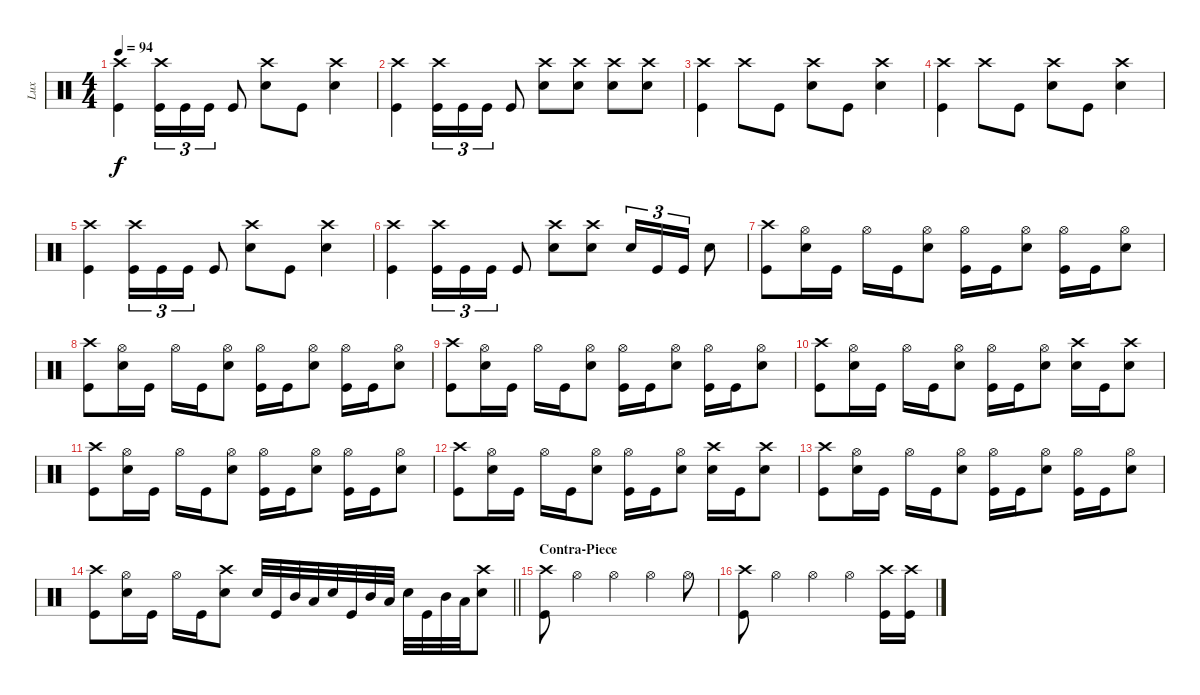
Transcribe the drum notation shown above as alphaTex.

\track ("Lux" "Lux") {instrument percussion}
\staff {score}
\articulation defaults
\ts (4 4)
\tempo 94
\clef neutral
\ks c
("Crash high (hit)" "Kick (hit)").4{dy f} ("Crash high (hit)" "Kick (hit)").16{tu (3 2)} "Kick (hit)".16{tu (3 2)} "Kick (hit)".16{tu (3 2)} "Kick (hit)".8 ("Crash high (hit)" "Snare (hit) 2").8 "Kick (hit)".8 ("Crash high (hit)" "Snare (hit) 2").4 |
("Crash high (hit)" "Kick (hit)").4 ("Crash high (hit)" "Kick (hit)").16{tu (3 2)} "Kick (hit)".16{tu (3 2)} "Kick (hit)".16{tu (3 2)} "Kick (hit)".8 ("Crash high (hit)" "Snare (hit) 2").8 ("Crash high (hit)" "Snare (hit) 2").8 ("Crash high (hit)" "Snare (hit) 2").8 ("Crash high (hit)" "Snare (hit) 2").8 |
("Crash high (hit)" "Kick (hit)").4 "Crash high (hit)".8 "Kick (hit)".8 ("Crash high (hit)" "Snare (hit) 2").8 "Kick (hit)".8 ("Crash high (hit)" "Snare (hit) 2").4 |
("Crash high (hit)" "Kick (hit)").4 "Crash high (hit)".8 "Kick (hit)".8 ("Crash high (hit)" "Snare (hit) 2").8 "Kick (hit)".8 ("Crash high (hit)" "Snare (hit) 2").4 |
("Crash high (hit)" "Kick (hit)").4 ("Crash high (hit)" "Kick (hit)").16{tu (3 2)} "Kick (hit)".16{tu (3 2)} "Kick (hit)".16{tu (3 2)} "Kick (hit)".8 ("Crash high (hit)" "Snare (hit) 2").8 "Kick (hit)".8 ("Crash high (hit)" "Snare (hit) 2").4 |
("Crash high (hit)" "Kick (hit)").4 ("Crash high (hit)" "Kick (hit)").16{tu (3 2)} "Kick (hit)".16{tu (3 2)} "Kick (hit)".16{tu (3 2)} "Kick (hit)".8 ("Crash high (hit)" "Snare (hit) 2").8 ("Crash high (hit)" "Snare (hit) 2").8 "Snare (hit) 2".16{tu (3 2)} "Kick (hit)".16{tu (3 2)} "Kick (hit)".16{tu (3 2)} "Snare (hit) 2".8 |
("Crash high (hit)" "Kick (hit)").8 ("Hi-Hat (open)" "Snare (hit) 2").16 "Kick (hit)".16 "Hi-Hat (open)".16 "Kick (hit)".16 ("Hi-Hat (open)" "Snare (hit) 2").8 ("Hi-Hat (open)" "Kick (hit)").16 "Kick (hit)".16 ("Hi-Hat (open)" "Snare (hit) 2").8 ("Hi-Hat (open)" "Kick (hit)").16 "Kick (hit)".16 ("Hi-Hat (open)" "Snare (hit) 2").8 |
("Crash high (hit)" "Kick (hit)").8 ("Hi-Hat (open)" "Snare (hit) 2").16 "Kick (hit)".16 "Hi-Hat (open)".16 "Kick (hit)".16 ("Hi-Hat (open)" "Snare (hit) 2").8 ("Hi-Hat (open)" "Kick (hit)").16 "Kick (hit)".16 ("Hi-Hat (open)" "Snare (hit) 2").8 ("Hi-Hat (open)" "Kick (hit)").16 "Kick (hit)".16 ("Hi-Hat (open)" "Snare (hit) 2").8 |
("Crash high (hit)" "Kick (hit)").8 ("Hi-Hat (open)" "Snare (hit) 2").16 "Kick (hit)".16 "Hi-Hat (open)".16 "Kick (hit)".16 ("Hi-Hat (open)" "Snare (hit) 2").8 ("Hi-Hat (open)" "Kick (hit)").16 "Kick (hit)".16 ("Hi-Hat (open)" "Snare (hit) 2").8 ("Hi-Hat (open)" "Kick (hit)").16 "Kick (hit)".16 ("Hi-Hat (open)" "Snare (hit) 2").8 |
("Crash high (hit)" "Kick (hit)").8 ("Hi-Hat (open)" "Snare (hit) 2").16 "Kick (hit)".16 "Hi-Hat (open)".16 "Kick (hit)".16 ("Hi-Hat (open)" "Snare (hit) 2").8 ("Hi-Hat (open)" "Kick (hit)").16 "Kick (hit)".16 ("Hi-Hat (open)" "Snare (hit) 2").8 ("Crash high (hit)" "Snare (hit) 2").16 "Kick (hit)".16 ("Crash high (hit)" "Snare (hit) 2").8 |
("Crash high (hit)" "Kick (hit)").8 ("Hi-Hat (open)" "Snare (hit) 2").16 "Kick (hit)".16 "Hi-Hat (open)".16 "Kick (hit)".16 ("Hi-Hat (open)" "Snare (hit) 2").8 ("Hi-Hat (open)" "Kick (hit)").16 "Kick (hit)".16 ("Hi-Hat (open)" "Snare (hit) 2").8 ("Hi-Hat (open)" "Kick (hit)").16 "Kick (hit)".16 ("Hi-Hat (open)" "Snare (hit) 2").8 |
("Crash high (hit)" "Kick (hit)").8 ("Hi-Hat (open)" "Snare (hit) 2").16 "Kick (hit)".16 "Hi-Hat (open)".16 "Kick (hit)".16 ("Hi-Hat (open)" "Snare (hit) 2").8 ("Hi-Hat (open)" "Kick (hit)").16 "Kick (hit)".16 ("Hi-Hat (open)" "Snare (hit) 2").8 ("Crash high (hit)" "Snare (hit) 2").16 "Kick (hit)".16 ("Crash high (hit)" "Snare (hit) 2").8 |
("Crash high (hit)" "Kick (hit)").8 ("Hi-Hat (open)" "Snare (hit) 2").16 "Kick (hit)".16 "Hi-Hat (open)".16 "Kick (hit)".16 ("Hi-Hat (open)" "Snare (hit) 2").8 ("Hi-Hat (open)" "Kick (hit)").16 "Kick (hit)".16 ("Hi-Hat (open)" "Snare (hit) 2").8 ("Hi-Hat (open)" "Kick (hit)").16 "Kick (hit)".16 ("Hi-Hat (open)" "Snare (hit) 2").8 |
\barLineRight lightlight
("Crash high (hit)" "Kick (hit)").8 ("Hi-Hat (open)" "Snare (hit) 2").16 "Kick (hit)".16 "Hi-Hat (open)".16 "Kick (hit)".16 ("Crash high (hit)" "Snare (hit) 2").8 "Snare (hit) 2".32 "Kick (hit)".32 "Mid Tom (hit)".32 "Low Tom (hit)".32 "Snare (hit) 2".32 "Kick (hit)".32 "Mid Tom (hit)".32 "Low Tom (hit)".32 "Snare (hit) 2".32 "Kick (hit)".32 "Mid Tom (hit)".32 "Low Tom (hit)".32 ("Crash high (hit)" "Snare (hit) 2").8 |
\section ("" "Contra-Piece")
("Crash high (hit)" "Kick (hit)").8 "Hi-Hat (open)".4 "Hi-Hat (open)".4 "Hi-Hat (open)".4 "Hi-Hat (open)".8 |
("Crash high (hit)" "Kick (hit)").8 "Hi-Hat (open)".4 "Hi-Hat (open)".4 "Hi-Hat (open)".4 ("Crash high (hit)" "Kick (hit)").16 ("Crash high (hit)" "Kick (hit)").16
